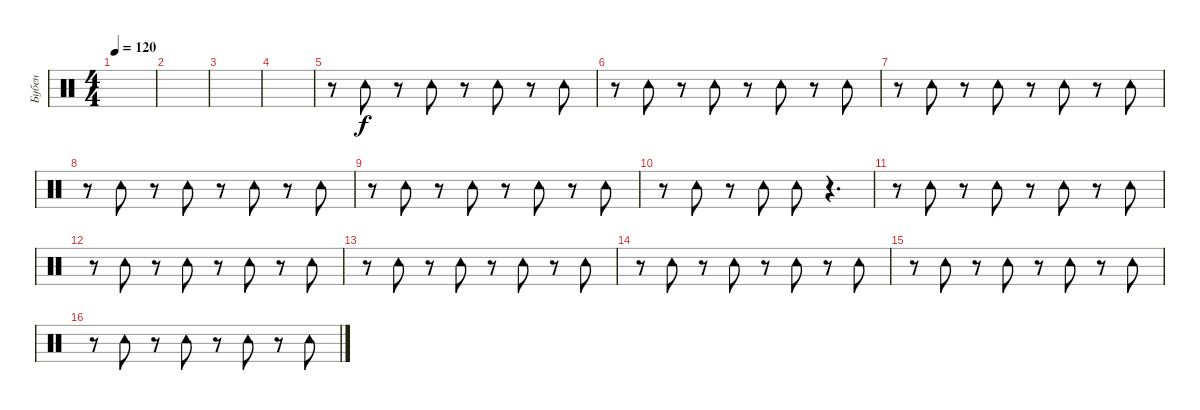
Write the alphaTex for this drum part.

\track ("Бубен" "Бубен") {instrument percussion}
\staff {score}
\articulation defaults
\ts (4 4)
\tempo 120
\clef neutral
\ks c
|
|
|
|
r.8 "Tambourine (hit)".8 r.8 "Tambourine (hit)".8 r.8 "Tambourine (hit)".8 r.8 "Tambourine (hit)".8 |
r.8 "Tambourine (hit)".8 r.8 "Tambourine (hit)".8 r.8 "Tambourine (hit)".8 r.8 "Tambourine (hit)".8 |
r.8 "Tambourine (hit)".8 r.8 "Tambourine (hit)".8 r.8 "Tambourine (hit)".8 r.8 "Tambourine (hit)".8 |
r.8 "Tambourine (hit)".8 r.8 "Tambourine (hit)".8 r.8 "Tambourine (hit)".8 r.8 "Tambourine (hit)".8 |
r.8 "Tambourine (hit)".8 r.8 "Tambourine (hit)".8 r.8 "Tambourine (hit)".8 r.8 "Tambourine (hit)".8 |
r.8 "Tambourine (hit)".8 r.8 "Tambourine (hit)".8 "Tambourine (hit)".8 r.4{d} |
r.8 "Tambourine (hit)".8 r.8 "Tambourine (hit)".8 r.8 "Tambourine (hit)".8 r.8 "Tambourine (hit)".8 |
r.8 "Tambourine (hit)".8 r.8 "Tambourine (hit)".8 r.8 "Tambourine (hit)".8 r.8 "Tambourine (hit)".8 |
r.8 "Tambourine (hit)".8 r.8 "Tambourine (hit)".8 r.8 "Tambourine (hit)".8 r.8 "Tambourine (hit)".8 |
r.8 "Tambourine (hit)".8 r.8 "Tambourine (hit)".8 r.8 "Tambourine (hit)".8 r.8 "Tambourine (hit)".8 |
r.8 "Tambourine (hit)".8 r.8 "Tambourine (hit)".8 r.8 "Tambourine (hit)".8 r.8 "Tambourine (hit)".8 |
r.8 "Tambourine (hit)".8 r.8 "Tambourine (hit)".8 r.8 "Tambourine (hit)".8 r.8 "Tambourine (hit)".8
